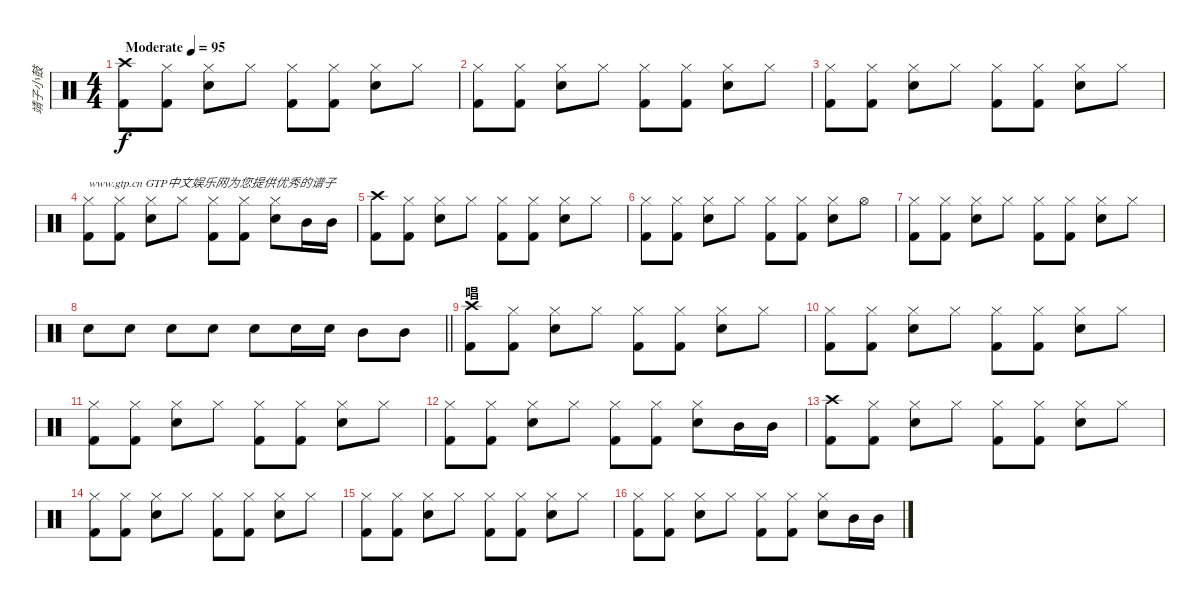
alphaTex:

\track ("靖子小鼓" "靖子小鼓") {instrument percussion}
\staff {score}
\articulation defaults
\ts (4 4)
\tempo (95 "Moderate")
\clef neutral
\ks c
("Crash high (hit)" "Kick (hit) 2").8{dy f} ("Hi-Hat (closed)" "Kick (hit) 2").8 ("Hi-Hat (closed)" "Electric Snare (hit)").8 "Hi-Hat (closed)".8 ("Hi-Hat (closed)" "Kick (hit) 2").8 ("Hi-Hat (closed)" "Kick (hit) 2").8 ("Hi-Hat (closed)" "Electric Snare (hit)").8 "Hi-Hat (closed)".8 |
("Hi-Hat (closed)" "Kick (hit) 2").8 ("Hi-Hat (closed)" "Kick (hit) 2").8 ("Hi-Hat (closed)" "Electric Snare (hit)").8 "Hi-Hat (closed)".8 ("Hi-Hat (closed)" "Kick (hit) 2").8 ("Hi-Hat (closed)" "Kick (hit) 2").8 ("Hi-Hat (closed)" "Electric Snare (hit)").8 "Hi-Hat (closed)".8 |
("Hi-Hat (closed)" "Kick (hit) 2").8 ("Hi-Hat (closed)" "Kick (hit) 2").8 ("Hi-Hat (closed)" "Electric Snare (hit)").8 "Hi-Hat (closed)".8 ("Hi-Hat (closed)" "Kick (hit) 2").8 ("Hi-Hat (closed)" "Kick (hit) 2").8 ("Hi-Hat (closed)" "Electric Snare (hit)").8 "Hi-Hat (closed)".8 |
("Hi-Hat (closed)" "Kick (hit) 2").8{txt "www.gtp.cn GTP中文娱乐网为您提供优秀的谱子"} ("Hi-Hat (closed)" "Kick (hit) 2").8 ("Hi-Hat (closed)" "Electric Snare (hit)").8 "Hi-Hat (closed)".8 ("Hi-Hat (closed)" "Kick (hit) 2").8 ("Hi-Hat (closed)" "Kick (hit) 2").8 ("Hi-Hat (closed)" "Electric Snare (hit)").8 "Mid Tom (hit)".16 "Mid Tom (hit)".16 |
("Crash high (hit)" "Kick (hit) 2").8 ("Hi-Hat (closed)" "Kick (hit) 2").8 ("Hi-Hat (closed)" "Electric Snare (hit)").8 "Hi-Hat (closed)".8 ("Hi-Hat (closed)" "Kick (hit) 2").8 ("Hi-Hat (closed)" "Kick (hit) 2").8 ("Hi-Hat (closed)" "Electric Snare (hit)").8 "Hi-Hat (closed)".8 |
("Hi-Hat (closed)" "Kick (hit) 2").8 ("Hi-Hat (closed)" "Kick (hit) 2").8 ("Hi-Hat (closed)" "Electric Snare (hit)").8 "Hi-Hat (closed)".8 ("Hi-Hat (closed)" "Kick (hit) 2").8 ("Hi-Hat (closed)" "Kick (hit) 2").8 ("Hi-Hat (closed)" "Electric Snare (hit)").8 "Hi-Hat (open)".8 |
("Hi-Hat (closed)" "Kick (hit) 2").8 ("Hi-Hat (closed)" "Kick (hit) 2").8 ("Hi-Hat (closed)" "Electric Snare (hit)").8 "Hi-Hat (closed)".8 ("Hi-Hat (closed)" "Kick (hit) 2").8 ("Hi-Hat (closed)" "Kick (hit) 2").8 ("Hi-Hat (closed)" "Electric Snare (hit)").8 "Hi-Hat (closed)".8 |
\barLineRight lightlight "Electric Snare (hit)".8 "Electric Snare (hit)".8 "Electric Snare (hit)".8 "Electric Snare (hit)".8 "Electric Snare (hit)".8 "Electric Snare (hit)".16 "Electric Snare (hit)".16 "Mid Tom (hit)".8 "Mid Tom (hit)".8
|
\section ("" "唱")
("Crash high (hit)" "Kick (hit) 2").8 ("Hi-Hat (closed)" "Kick (hit) 2").8 ("Hi-Hat (closed)" "Electric Snare (hit)").8 "Hi-Hat (closed)".8 ("Hi-Hat (closed)" "Kick (hit) 2").8 ("Hi-Hat (closed)" "Kick (hit) 2").8 ("Hi-Hat (closed)" "Electric Snare (hit)").8 "Hi-Hat (closed)".8 |
("Hi-Hat (closed)" "Kick (hit) 2").8 ("Hi-Hat (closed)" "Kick (hit) 2").8 ("Hi-Hat (closed)" "Electric Snare (hit)").8 "Hi-Hat (closed)".8 ("Hi-Hat (closed)" "Kick (hit) 2").8 ("Hi-Hat (closed)" "Kick (hit) 2").8 ("Hi-Hat (closed)" "Electric Snare (hit)").8 "Hi-Hat (closed)".8 |
("Hi-Hat (closed)" "Kick (hit) 2").8 ("Hi-Hat (closed)" "Kick (hit) 2").8 ("Hi-Hat (closed)" "Electric Snare (hit)").8 "Hi-Hat (closed)".8 ("Hi-Hat (closed)" "Kick (hit) 2").8 ("Hi-Hat (closed)" "Kick (hit) 2").8 ("Hi-Hat (closed)" "Electric Snare (hit)").8 "Hi-Hat (closed)".8 |
("Hi-Hat (closed)" "Kick (hit) 2").8 ("Hi-Hat (closed)" "Kick (hit) 2").8 ("Hi-Hat (closed)" "Electric Snare (hit)").8 "Hi-Hat (closed)".8 ("Hi-Hat (closed)" "Kick (hit) 2").8 ("Hi-Hat (closed)" "Kick (hit) 2").8 ("Hi-Hat (closed)" "Electric Snare (hit)").8 "Mid Tom (hit)".16 "Mid Tom (hit)".16 |
("Crash high (hit)" "Kick (hit) 2").8 ("Hi-Hat (closed)" "Kick (hit) 2").8 ("Hi-Hat (closed)" "Electric Snare (hit)").8 "Hi-Hat (closed)".8 ("Hi-Hat (closed)" "Kick (hit) 2").8 ("Hi-Hat (closed)" "Kick (hit) 2").8 ("Hi-Hat (closed)" "Electric Snare (hit)").8 "Hi-Hat (closed)".8 |
("Hi-Hat (closed)" "Kick (hit) 2").8 ("Hi-Hat (closed)" "Kick (hit) 2").8 ("Hi-Hat (closed)" "Electric Snare (hit)").8 "Hi-Hat (closed)".8 ("Hi-Hat (closed)" "Kick (hit) 2").8 ("Hi-Hat (closed)" "Kick (hit) 2").8 ("Hi-Hat (closed)" "Electric Snare (hit)").8 "Hi-Hat (closed)".8 |
("Hi-Hat (closed)" "Kick (hit) 2").8 ("Hi-Hat (closed)" "Kick (hit) 2").8 ("Hi-Hat (closed)" "Electric Snare (hit)").8 "Hi-Hat (closed)".8 ("Hi-Hat (closed)" "Kick (hit) 2").8 ("Hi-Hat (closed)" "Kick (hit) 2").8 ("Hi-Hat (closed)" "Electric Snare (hit)").8 "Hi-Hat (closed)".8 |
("Hi-Hat (closed)" "Kick (hit) 2").8 ("Hi-Hat (closed)" "Kick (hit) 2").8 ("Hi-Hat (closed)" "Electric Snare (hit)").8 "Hi-Hat (closed)".8 ("Hi-Hat (closed)" "Kick (hit) 2").8 ("Hi-Hat (closed)" "Kick (hit) 2").8 ("Hi-Hat (closed)" "Electric Snare (hit)").8 "Mid Tom (hit)".16 "Mid Tom (hit)".16
